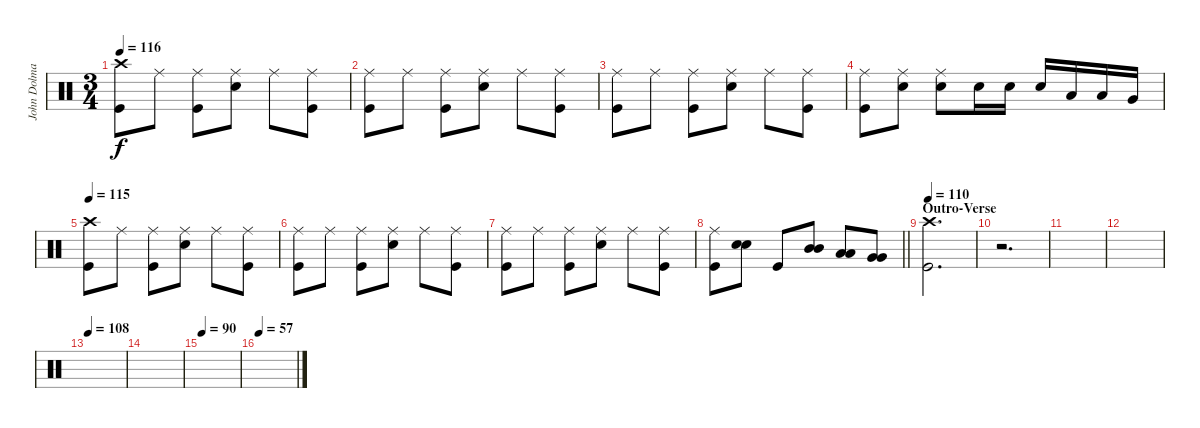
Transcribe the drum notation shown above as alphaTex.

\track ("John Dolmayan - Drums" "John Dolma") {instrument percussion}
\staff
\articulation defaults
\ts (3 4)
\tempo 116
\clef neutral
\ks c
("Crash high (hit)" "Kick (hit)").8{dy f} "Ride (middle)".8 ("Ride (middle)" "Kick (hit)").8 ("Ride (middle)" "Snare (hit) 2").8 "Ride (middle)".8 ("Ride (middle)" "Kick (hit)").8 |
("Ride (middle)" "Kick (hit)").8 "Ride (middle)".8 ("Ride (middle)" "Kick (hit)").8 ("Ride (middle)" "Snare (hit) 2").8 "Ride (middle)".8 ("Ride (middle)" "Kick (hit)").8 |
("Ride (middle)" "Kick (hit)").8 "Ride (middle)".8 ("Ride (middle)" "Kick (hit)").8 ("Ride (middle)" "Snare (hit) 2").8 "Ride (middle)".8 ("Ride (middle)" "Kick (hit)").8 |
("Ride (middle)" "Kick (hit)").8 ("Ride (middle)" "Snare (hit) 2").8 ("Ride (middle)" "Snare (hit) 2").8 "Snare (hit) 2".16 "Snare (hit) 2".16 "Snare (hit) 2".16 "Low Tom (hit)".16 "Low Tom (hit)".16 "Very Low Tom (hit)".16 |
\tempo 115
("Crash high (hit)" "Kick (hit)").8 "Ride (middle)".8 ("Ride (middle)" "Kick (hit)").8 ("Ride (middle)" "Snare (hit) 2").8 "Ride (middle)".8 ("Ride (middle)" "Kick (hit)").8 |
("Ride (middle)" "Kick (hit)").8 "Ride (middle)".8 ("Ride (middle)" "Kick (hit)").8 ("Ride (middle)" "Snare (hit) 2").8 "Ride (middle)".8 ("Ride (middle)" "Kick (hit)").8 |
("Ride (middle)" "Kick (hit)").8 "Ride (middle)".8 ("Ride (middle)" "Kick (hit)").8 ("Ride (middle)" "Snare (hit) 2").8 "Ride (middle)".8 ("Ride (middle)" "Kick (hit)").8 |
\barLineRight lightlight
("Ride (middle)" "Kick (hit)").8 ("Snare (hit) 2" "Snare (hit) 2").8 "Kick (hit)".8 ("Mid Tom (hit)" "Mid Tom (hit)").8 ("Low Tom (hit)" "Low Tom (hit)").8 ("Very Low Tom (hit)" "Very Low Tom (hit)").8 |
\section ("" "Outro-Verse")
\tempo 110
("Crash high (hit)" "Kick (hit)").2{d} |
r.2{d} |
|
|
\tempo 108
|
|
\tempo 90
|
\tempo 57
